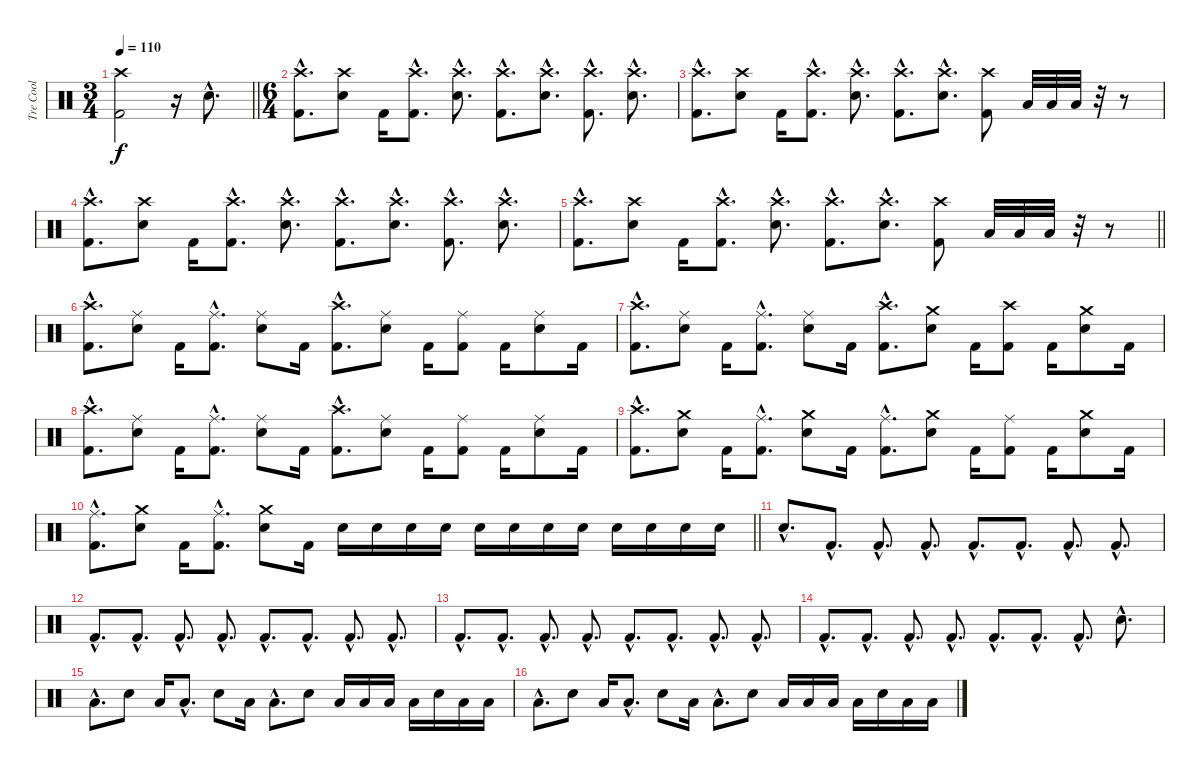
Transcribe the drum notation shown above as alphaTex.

\track ("Tre Cool" "Tre Cool") {instrument percussion}
\staff {score}
\articulation defaults
\ts (3 4)
\tempo 110
\clef neutral
\barLineRight lightlight
\ks c
("Crash high (hit)" "Kick (hit) 2").2{dy f} r.16 "Electric Snare (hit)"{hac}.8{d} |
\ts (6 4)
("Crash high (hit)"{hac} "Kick (hit) 2"{hac}).8{d} ("Crash high (hit)" "Electric Snare (hit)").8 "Kick (hit) 2".16 ("Crash high (hit)"{hac} "Kick (hit) 2"{hac}).8{d} ("Crash high (hit)"{hac} "Electric Snare (hit)"{hac}).8{d} ("Crash high (hit)"{hac} "Kick (hit) 2"{hac}).8{d} ("Crash high (hit)"{hac} "Electric Snare (hit)"{hac}).8{d} ("Crash high (hit)"{hac} "Kick (hit) 2"{hac}).8{d} ("Crash high (hit)"{hac} "Electric Snare (hit)"{hac}).8{d} |
("Crash high (hit)"{hac} "Kick (hit) 2"{hac}).8{d} ("Crash high (hit)" "Electric Snare (hit)").8 "Kick (hit) 2".16 ("Crash high (hit)"{hac} "Kick (hit) 2"{hac}).8{d} ("Crash high (hit)"{hac} "Electric Snare (hit)"{hac}).8{d} ("Crash high (hit)"{hac} "Kick (hit) 2"{hac}).8{d} ("Crash high (hit)"{hac} "Electric Snare (hit)"{hac}).8{d} ("Crash high (hit)" "Kick (hit) 2").8 "Low Floor Tom (hit)".32 "Low Floor Tom (hit)".32 "Low Floor Tom (hit)".32 r.32 r.8 |
("Crash high (hit)"{hac} "Kick (hit) 2"{hac}).8{d} ("Crash high (hit)" "Electric Snare (hit)").8 "Kick (hit) 2".16 ("Crash high (hit)"{hac} "Kick (hit) 2"{hac}).8{d} ("Crash high (hit)"{hac} "Electric Snare (hit)"{hac}).8{d} ("Crash high (hit)"{hac} "Kick (hit) 2"{hac}).8{d} ("Crash high (hit)"{hac} "Electric Snare (hit)"{hac}).8{d} ("Crash high (hit)"{hac} "Kick (hit) 2"{hac}).8{d} ("Crash high (hit)"{hac} "Electric Snare (hit)"{hac}).8{d} |
\barLineRight lightlight
("Crash high (hit)"{hac} "Kick (hit) 2"{hac}).8{d} ("Crash high (hit)" "Electric Snare (hit)").8 "Kick (hit) 2".16 ("Crash high (hit)"{hac} "Kick (hit) 2"{hac}).8{d} ("Crash high (hit)"{hac} "Electric Snare (hit)"{hac}).8{d} ("Crash high (hit)"{hac} "Kick (hit) 2"{hac}).8{d} ("Crash high (hit)"{hac} "Electric Snare (hit)"{hac}).8{d} ("Crash high (hit)" "Kick (hit) 2").8 "Low Floor Tom (hit)".32 "Low Floor Tom (hit)".32 "Low Floor Tom (hit)".32 r.32 r.8 |
("Crash high (hit)"{hac} "Kick (hit) 2"{hac}).8{d} ("Ride (middle)" "Electric Snare (hit)").8 "Kick (hit) 2".16 ("Ride (middle)"{hac} "Kick (hit) 2"{hac}).8{d} ("Ride (middle)" "Electric Snare (hit)").8 "Kick (hit) 2".16 ("Crash high (hit)"{hac} "Kick (hit) 2"{hac}).8{d} ("Ride (middle)" "Electric Snare (hit)").8 "Kick (hit) 2".16 ("Ride (middle)" "Kick (hit) 2").8 "Kick (hit) 2".16 ("Ride (middle)" "Electric Snare (hit)").8 "Kick (hit) 2".16 |
("Crash high (hit)"{hac} "Kick (hit) 2"{hac}).8{d} ("Ride (middle)" "Electric Snare (hit)").8 "Kick (hit) 2".16 ("Ride (middle)"{hac} "Kick (hit) 2"{hac}).8{d} ("Ride (middle)" "Electric Snare (hit)").8 "Kick (hit) 2".16 ("Crash high (hit)"{hac} "Kick (hit) 2"{hac}).8{d} ("Crash medium (hit)" "Electric Snare (hit)").8 "Kick (hit) 2".16 ("Crash high (hit)" "Kick (hit) 2").8 "Kick (hit) 2".16 ("Crash medium (hit)" "Electric Snare (hit)").8 "Kick (hit) 2".16 |
("Crash high (hit)"{hac} "Kick (hit) 2"{hac}).8{d} ("Ride (middle)" "Electric Snare (hit)").8 "Kick (hit) 2".16 ("Ride (middle)"{hac} "Kick (hit) 2"{hac}).8{d} ("Ride (middle)" "Electric Snare (hit)").8 "Kick (hit) 2".16 ("Crash high (hit)"{hac} "Kick (hit) 2"{hac}).8{d} ("Ride (middle)" "Electric Snare (hit)").8 "Kick (hit) 2".16 ("Ride (middle)" "Kick (hit) 2").8 "Kick (hit) 2".16 ("Ride (middle)" "Electric Snare (hit)").8 "Kick (hit) 2".16 |
("Crash high (hit)"{hac} "Kick (hit) 2"{hac}).8{d} ("Crash medium (hit)" "Electric Snare (hit)").8 "Kick (hit) 2".16 ("Ride (middle)"{hac} "Kick (hit) 2"{hac}).8{d} ("Crash medium (hit)" "Electric Snare (hit)").8 "Kick (hit) 2".16 ("Ride (middle)"{hac} "Kick (hit) 2"{hac}).8{d} ("Crash medium (hit)" "Electric Snare (hit)").8 "Kick (hit) 2".16 ("Ride (middle)" "Kick (hit) 2").8 "Kick (hit) 2".16 ("Crash medium (hit)" "Electric Snare (hit)").8 "Kick (hit) 2".16 |
\barLineRight lightlight
("Ride (middle)"{hac} "Kick (hit) 2"{hac}).8{d} ("Crash medium (hit)" "Electric Snare (hit)").8 "Kick (hit) 2".16 ("Ride (middle)"{hac} "Kick (hit) 2"{hac}).8{d} ("Crash medium (hit)" "Electric Snare (hit)").8 "Kick (hit) 2".16 "Electric Snare (hit)".16 "Electric Snare (hit)".16 "Electric Snare (hit)".16 "Electric Snare (hit)".16 "Electric Snare (hit)".16 "Electric Snare (hit)".16 "Electric Snare (hit)".16 "Electric Snare (hit)".16 "Electric Snare (hit)".16 "Electric Snare (hit)".16 "Electric Snare (hit)".16 "Electric Snare (hit)".16 |
"Electric Snare (hit)"{hac}.8{d} "Kick (hit) 2"{hac}.8{d} "Kick (hit) 2"{hac}.8{d} "Kick (hit) 2"{hac}.8{d} "Kick (hit) 2"{hac}.8{d} "Kick (hit) 2"{hac}.8{d} "Kick (hit) 2"{hac}.8{d} "Kick (hit) 2"{hac}.8{d} |
"Kick (hit) 2"{hac}.8{d} "Kick (hit) 2"{hac}.8{d} "Kick (hit) 2"{hac}.8{d} "Kick (hit) 2"{hac}.8{d} "Kick (hit) 2"{hac}.8{d} "Kick (hit) 2"{hac}.8{d} "Kick (hit) 2"{hac}.8{d} "Kick (hit) 2"{hac}.8{d} |
"Kick (hit) 2"{hac}.8{d} "Kick (hit) 2"{hac}.8{d} "Kick (hit) 2"{hac}.8{d} "Kick (hit) 2"{hac}.8{d} "Kick (hit) 2"{hac}.8{d} "Kick (hit) 2"{hac}.8{d} "Kick (hit) 2"{hac}.8{d} "Kick (hit) 2"{hac}.8{d} |
"Kick (hit) 2"{hac}.8{d} "Kick (hit) 2"{hac}.8{d} "Kick (hit) 2"{hac}.8{d} "Kick (hit) 2"{hac}.8{d} "Kick (hit) 2"{hac}.8{d} "Kick (hit) 2"{hac}.8{d} "Kick (hit) 2"{hac}.8{d} "Electric Snare (hit)"{hac}.8{d} |
"Low Floor Tom (hit)"{hac}.8{d} "Electric Snare (hit)".8 "Low Floor Tom (hit)".16 "Low Floor Tom (hit)"{hac}.8{d} "Electric Snare (hit)".8 "Low Floor Tom (hit)".16 "Low Floor Tom (hit)"{hac}.8{d} "Electric Snare (hit)".8 "Low Floor Tom (hit)".16 "Low Floor Tom (hit)".16 "Low Floor Tom (hit)".16 "Low Floor Tom (hit)".16 "Electric Snare (hit)".16 "Low Floor Tom (hit)".16 "Low Floor Tom (hit)".16 |
"Low Floor Tom (hit)"{hac}.8{d} "Electric Snare (hit)".8 "Low Floor Tom (hit)".16 "Low Floor Tom (hit)"{hac}.8{d} "Electric Snare (hit)".8 "Low Floor Tom (hit)".16 "Low Floor Tom (hit)"{hac}.8{d} "Electric Snare (hit)".8 "Low Floor Tom (hit)".16 "Low Floor Tom (hit)".16 "Low Floor Tom (hit)".16 "Low Floor Tom (hit)".16 "Electric Snare (hit)".16 "Low Floor Tom (hit)".16 "Low Floor Tom (hit)".16
